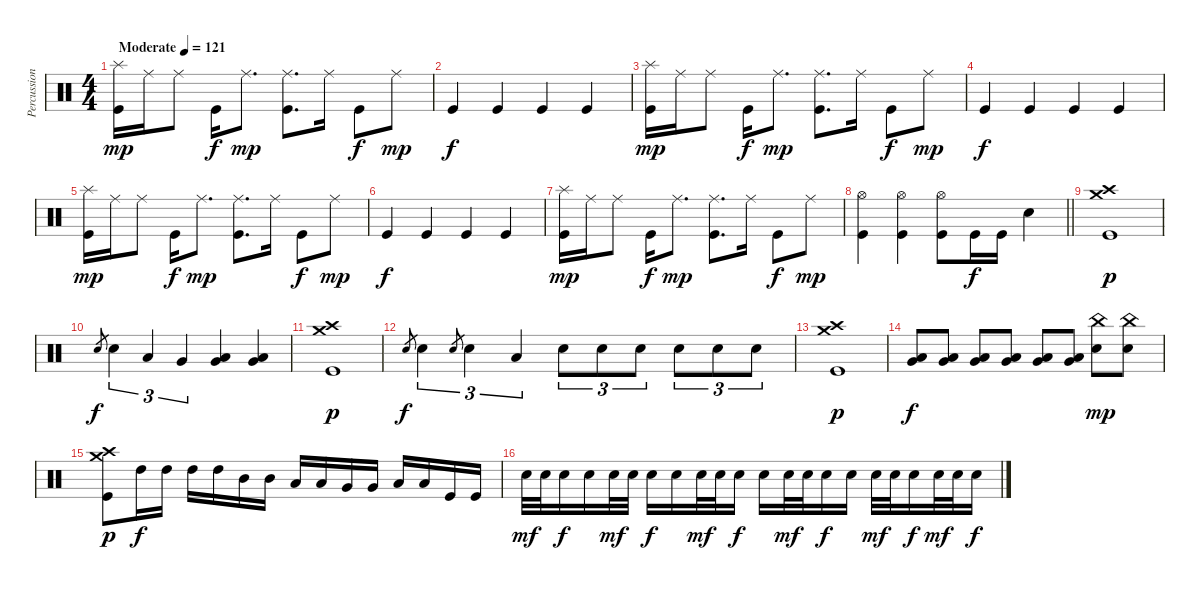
\track ("Percussion" "Percussion") {instrument percussion}
\staff {score}
\articulation defaults
\ts (4 4)
\section ("" "")
\tempo (121 "Moderate")
\clef neutral
\ks c
("Splash (hit)" "Kick (hit)").16{dy mp} "Ride (middle)".16 "Ride (middle)".8 "Kick (hit)".16{dy f} "Ride (middle)".8{d dy mp} ("Ride (middle)" "Kick (hit)").8{d} "Ride (middle)".16 "Kick (hit)".8{dy f} "Ride (middle)".8{dy mp} |
"Kick (hit)".4{dy f} "Kick (hit)".4 "Kick (hit)".4 "Kick (hit)".4 |
("Splash (hit)" "Kick (hit)").16{dy mp} "Ride (middle)".16 "Ride (middle)".8 "Kick (hit)".16{dy f} "Ride (middle)".8{d dy mp} ("Ride (middle)" "Kick (hit)").8{d} "Ride (middle)".16 "Kick (hit)".8{dy f} "Ride (middle)".8{dy mp} |
"Kick (hit)".4{dy f} "Kick (hit)".4 "Kick (hit)".4 "Kick (hit)".4 |
("Splash (hit)" "Kick (hit)").16{dy mp} "Ride (middle)".16 "Ride (middle)".8 "Kick (hit)".16{dy f} "Ride (middle)".8{d dy mp} ("Ride (middle)" "Kick (hit)").8{d} "Ride (middle)".16 "Kick (hit)".8{dy f} "Ride (middle)".8{dy mp} |
"Kick (hit)".4{dy f} "Kick (hit)".4 "Kick (hit)".4 "Kick (hit)".4 |
("Splash (hit)" "Kick (hit)").16{dy mp} "Ride (middle)".16 "Ride (middle)".8 "Kick (hit)".16{dy f} "Ride (middle)".8{d dy mp} ("Ride (middle)" "Kick (hit)").8{d} "Ride (middle)".16 "Kick (hit)".8{dy f} "Ride (middle)".8{dy mp} |
\barLineRight lightlight
("Hi-Hat (open)" "Kick (hit)").4 ("Hi-Hat (open)" "Kick (hit)").4 ("Hi-Hat (open)" "Kick (hit)").8 "Kick (hit)".16{dy f} "Kick (hit)".16 "Electric Snare (hit)".4 |
\section ("" "")
("Crash high (hit)" "Crash medium (hit)" "Kick (hit)").1{dy p} |
"Electric Snare (hit)".8{gr dy f} "Electric Snare (hit)".4{tu (3 2)} "Low Tom (hit)".4{tu (3 2)} "Very Low Tom (hit)".4{tu (3 2)} ("Very Low Tom (hit)" "Low Floor Tom (hit)").4 ("Very Low Tom (hit)" "Low Floor Tom (hit)").4 |
("Crash high (hit)" "Crash medium (hit)" "Kick (hit)").1{dy p} |
"Electric Snare (hit)".8{gr dy f} "Electric Snare (hit)".4{tu (3 2)} "Electric Snare (hit)".8{gr} "Electric Snare (hit)".4{tu (3 2)} "Low Floor Tom (hit)".4{tu (3 2)} "Electric Snare (hit)".8{tu (3 2)} "Electric Snare (hit)".8{tu (3 2)} "Electric Snare (hit)".8{tu (3 2)} "Electric Snare (hit)".8{tu (3 2)} "Electric Snare (hit)".8{tu (3 2)} "Electric Snare (hit)".8{tu (3 2)} |
("Crash high (hit)" "Crash medium (hit)" "Kick (hit)").1{dy p} |
("Very Low Tom (hit)" "Low Floor Tom (hit)").8{dy f} ("Very Low Tom (hit)" "Low Floor Tom (hit)").8 ("Very Low Tom (hit)" "Low Floor Tom (hit)").8 ("Very Low Tom (hit)" "Low Floor Tom (hit)").8 ("Very Low Tom (hit)" "Low Floor Tom (hit)").8 ("Very Low Tom (hit)" "Low Floor Tom (hit)").8 ("China (hit)" "Electric Snare (hit)").8{dy mp} ("China (hit)" "Electric Snare (hit)").8 |
("Crash high (hit)" "Crash medium (hit)" "Kick (hit)").8{dy p} "High Tom (hit)".16{dy f} "High Tom (hit)".16 "High Tom (hit)".16 "High Tom (hit)".16 "Mid Tom (hit)".16 "Mid Tom (hit)".16 "Low Tom (hit)".16 "Low Tom (hit)".16 "Very Low Tom (hit)".16 "Very Low Tom (hit)".16 "Low Floor Tom (hit)".16 "Low Floor Tom (hit)".16 "Kick (hit)".16 "Kick (hit)".16 |
"Electric Snare (hit)".32{dy mf} "Electric Snare (hit)".32 "Electric Snare (hit)".16{dy f} "Electric Snare (hit)".16 "Electric Snare (hit)".32{dy mf} "Electric Snare (hit)".32 "Electric Snare (hit)".16{dy f} "Electric Snare (hit)".16 "Electric Snare (hit)".32{dy mf} "Electric Snare (hit)".32 "Electric Snare (hit)".16{dy f} "Electric Snare (hit)".16 "Electric Snare (hit)".32{dy mf} "Electric Snare (hit)".32 "Electric Snare (hit)".16{dy f} "Electric Snare (hit)".16 "Electric Snare (hit)".32{dy mf} "Electric Snare (hit)".32 "Electric Snare (hit)".16{dy f} "Electric Snare (hit)".32{dy mf} "Electric Snare (hit)".32 "Electric Snare (hit)".16{dy f}
